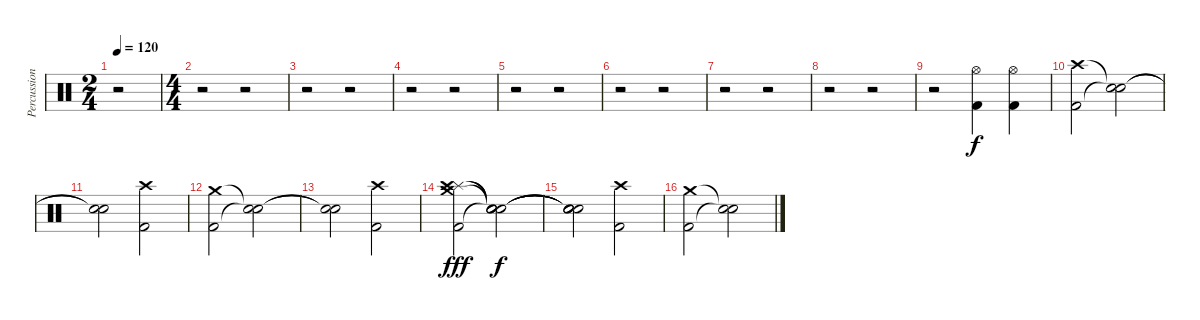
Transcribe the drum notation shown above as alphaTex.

\track ("Percussion" "Percussion") {instrument percussion}
\staff {score}
\articulation defaults
\ts (2 4)
\tempo 120
\clef neutral
\ks c
r.2{dy f} |
\ts (4 4)
r.2 r.2 |
r.2 r.2 |
r.2 r.2 |
r.2 r.2 |
r.2 r.2 |
r.2 r.2 |
r.2 r.2 |
r.2 ("Hi-Hat (open)" "Kick (hit) 2").4 ("Hi-Hat (open)" "Kick (hit) 2").4 |
("Crash high (hit)" "Kick (hit) 2").2 ("Snare (hit)"{t} "Snare (hit)"{t}).2 |
("Snare (hit)"{t} "Snare (hit)"{t}).2 ("Crash high (hit)" "Kick (hit) 2").2 |
("Crash medium (hit)" "Kick (hit) 2").2 ("Snare (hit)"{t} "Snare (hit)"{t}).2 |
("Snare (hit)"{t} "Snare (hit)"{t}).2 ("Crash high (hit)" "Kick (hit) 2").2 |
("Splash (hit)" "Crash high (hit)" "Crash medium (hit)" "Kick (hit) 2").2{dy fff} ("Snare (hit)"{t} "Snare (hit)"{t} "Snare (hit)"{t} "Snare (hit)"{t}).2{dy f} |
("Snare (hit)"{t} "Snare (hit)"{t} "Snare (hit)"{t} "Snare (hit)"{t}).2 ("Crash high (hit)" "Kick (hit) 2").2 |
("Crash medium (hit)" "Kick (hit) 2").2 ("Snare (hit)"{t} "Snare (hit)"{t}).2
